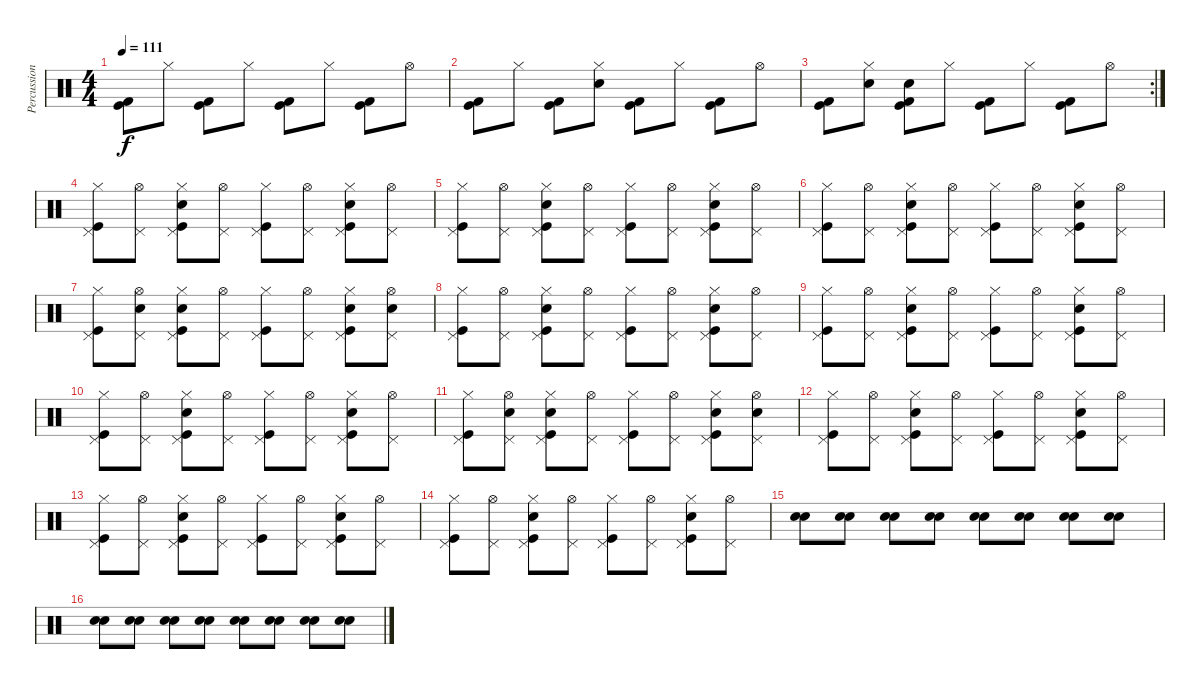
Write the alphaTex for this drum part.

\track ("Percussion" "Percussion") {instrument percussion}
\staff {score}
\articulation defaults
\ts (4 4)
\tempo 111
\clef neutral
\ks c
("Kick (hit)" "Kick (hit) 2").8{dy f} "Hi-Hat (closed)".8 ("Kick (hit)" "Kick (hit) 2").8 "Hi-Hat (closed)".8 ("Kick (hit)" "Kick (hit) 2").8 "Hi-Hat (closed)".8 ("Kick (hit)" "Kick (hit) 2").8 "Hi-Hat (open)".8 |
("Kick (hit)" "Kick (hit) 2").8 "Hi-Hat (closed)".8 ("Kick (hit)" "Kick (hit) 2").8 ("Hi-Hat (closed)" "Snare (hit) 2").8 ("Kick (hit)" "Kick (hit) 2").8 "Hi-Hat (closed)".8 ("Kick (hit)" "Kick (hit) 2").8 "Hi-Hat (open)".8 |
\rc 2
("Kick (hit)" "Kick (hit) 2").8 ("Hi-Hat (closed)" "Snare (hit) 2").8 ("Kick (hit)" "Kick (hit) 2" "Snare (hit) 2").8 "Hi-Hat (closed)".8 ("Kick (hit)" "Kick (hit) 2").8 "Hi-Hat (closed)".8 ("Kick (hit)" "Kick (hit) 2").8 "Hi-Hat (open)".8 |
("Kick (hit)" "Hi-Hat (closed)" "Pedal Hi-Hat (hit)").8 ("Hi-Hat (open)" "Pedal Hi-Hat (hit)").8 ("Kick (hit)" "Snare (hit) 2" "Hi-Hat (closed)" "Pedal Hi-Hat (hit)").8 ("Hi-Hat (open)" "Pedal Hi-Hat (hit)").8 ("Kick (hit)" "Hi-Hat (closed)" "Pedal Hi-Hat (hit)").8 ("Hi-Hat (open)" "Pedal Hi-Hat (hit)").8 ("Kick (hit)" "Snare (hit) 2" "Hi-Hat (closed)" "Pedal Hi-Hat (hit)").8 ("Hi-Hat (open)" "Pedal Hi-Hat (hit)").8 |
("Kick (hit)" "Hi-Hat (closed)" "Pedal Hi-Hat (hit)").8 ("Hi-Hat (open)" "Pedal Hi-Hat (hit)").8 ("Kick (hit)" "Snare (hit) 2" "Hi-Hat (closed)" "Pedal Hi-Hat (hit)").8 ("Hi-Hat (open)" "Pedal Hi-Hat (hit)").8 ("Kick (hit)" "Hi-Hat (closed)" "Pedal Hi-Hat (hit)").8 ("Hi-Hat (open)" "Pedal Hi-Hat (hit)").8 ("Kick (hit)" "Snare (hit) 2" "Hi-Hat (closed)" "Pedal Hi-Hat (hit)").8 ("Hi-Hat (open)" "Pedal Hi-Hat (hit)").8 |
("Kick (hit)" "Hi-Hat (closed)" "Pedal Hi-Hat (hit)").8 ("Hi-Hat (open)" "Pedal Hi-Hat (hit)").8 ("Kick (hit)" "Snare (hit) 2" "Hi-Hat (closed)" "Pedal Hi-Hat (hit)").8 ("Hi-Hat (open)" "Pedal Hi-Hat (hit)").8 ("Kick (hit)" "Hi-Hat (closed)" "Pedal Hi-Hat (hit)").8 ("Hi-Hat (open)" "Pedal Hi-Hat (hit)").8 ("Kick (hit)" "Snare (hit) 2" "Hi-Hat (closed)" "Pedal Hi-Hat (hit)").8 ("Hi-Hat (open)" "Pedal Hi-Hat (hit)").8 |
("Kick (hit)" "Hi-Hat (closed)" "Pedal Hi-Hat (hit)").8 ("Snare (hit) 2" "Hi-Hat (open)" "Pedal Hi-Hat (hit)").8 ("Kick (hit)" "Snare (hit) 2" "Hi-Hat (closed)" "Pedal Hi-Hat (hit)").8 ("Hi-Hat (open)" "Pedal Hi-Hat (hit)").8 ("Kick (hit)" "Hi-Hat (closed)" "Pedal Hi-Hat (hit)").8 ("Hi-Hat (open)" "Pedal Hi-Hat (hit)").8 ("Kick (hit)" "Snare (hit) 2" "Hi-Hat (closed)" "Pedal Hi-Hat (hit)").8 ("Snare (hit) 2" "Hi-Hat (open)" "Pedal Hi-Hat (hit)").8 |
("Kick (hit)" "Hi-Hat (closed)" "Pedal Hi-Hat (hit)").8 ("Hi-Hat (open)" "Pedal Hi-Hat (hit)").8 ("Kick (hit)" "Snare (hit) 2" "Hi-Hat (closed)" "Pedal Hi-Hat (hit)").8 ("Hi-Hat (open)" "Pedal Hi-Hat (hit)").8 ("Kick (hit)" "Hi-Hat (closed)" "Pedal Hi-Hat (hit)").8 ("Hi-Hat (open)" "Pedal Hi-Hat (hit)").8 ("Kick (hit)" "Snare (hit) 2" "Hi-Hat (closed)" "Pedal Hi-Hat (hit)").8 ("Hi-Hat (open)" "Pedal Hi-Hat (hit)").8 |
("Kick (hit)" "Hi-Hat (closed)" "Pedal Hi-Hat (hit)").8 ("Hi-Hat (open)" "Pedal Hi-Hat (hit)").8 ("Kick (hit)" "Snare (hit) 2" "Hi-Hat (closed)" "Pedal Hi-Hat (hit)").8 ("Hi-Hat (open)" "Pedal Hi-Hat (hit)").8 ("Kick (hit)" "Hi-Hat (closed)" "Pedal Hi-Hat (hit)").8 ("Hi-Hat (open)" "Pedal Hi-Hat (hit)").8 ("Kick (hit)" "Snare (hit) 2" "Hi-Hat (closed)" "Pedal Hi-Hat (hit)").8 ("Hi-Hat (open)" "Pedal Hi-Hat (hit)").8 |
("Kick (hit)" "Hi-Hat (closed)" "Pedal Hi-Hat (hit)").8 ("Hi-Hat (open)" "Pedal Hi-Hat (hit)").8 ("Kick (hit)" "Snare (hit) 2" "Hi-Hat (closed)" "Pedal Hi-Hat (hit)").8 ("Hi-Hat (open)" "Pedal Hi-Hat (hit)").8 ("Kick (hit)" "Hi-Hat (closed)" "Pedal Hi-Hat (hit)").8 ("Hi-Hat (open)" "Pedal Hi-Hat (hit)").8 ("Kick (hit)" "Snare (hit) 2" "Hi-Hat (closed)" "Pedal Hi-Hat (hit)").8 ("Hi-Hat (open)" "Pedal Hi-Hat (hit)").8 |
("Kick (hit)" "Hi-Hat (closed)" "Pedal Hi-Hat (hit)").8 ("Snare (hit) 2" "Hi-Hat (open)" "Pedal Hi-Hat (hit)").8 ("Kick (hit)" "Snare (hit) 2" "Hi-Hat (closed)" "Pedal Hi-Hat (hit)").8 ("Hi-Hat (open)" "Pedal Hi-Hat (hit)").8 ("Kick (hit)" "Hi-Hat (closed)" "Pedal Hi-Hat (hit)").8 ("Hi-Hat (open)" "Pedal Hi-Hat (hit)").8 ("Kick (hit)" "Snare (hit) 2" "Hi-Hat (closed)" "Pedal Hi-Hat (hit)").8 ("Snare (hit) 2" "Hi-Hat (open)" "Pedal Hi-Hat (hit)").8 |
("Kick (hit)" "Hi-Hat (closed)" "Pedal Hi-Hat (hit)").8 ("Hi-Hat (open)" "Pedal Hi-Hat (hit)").8 ("Kick (hit)" "Snare (hit) 2" "Hi-Hat (closed)" "Pedal Hi-Hat (hit)").8 ("Hi-Hat (open)" "Pedal Hi-Hat (hit)").8 ("Kick (hit)" "Hi-Hat (closed)" "Pedal Hi-Hat (hit)").8 ("Hi-Hat (open)" "Pedal Hi-Hat (hit)").8 ("Kick (hit)" "Snare (hit) 2" "Hi-Hat (closed)" "Pedal Hi-Hat (hit)").8 ("Hi-Hat (open)" "Pedal Hi-Hat (hit)").8 |
("Kick (hit)" "Hi-Hat (closed)" "Pedal Hi-Hat (hit)").8 ("Hi-Hat (open)" "Pedal Hi-Hat (hit)").8 ("Kick (hit)" "Snare (hit) 2" "Hi-Hat (closed)" "Pedal Hi-Hat (hit)").8 ("Hi-Hat (open)" "Pedal Hi-Hat (hit)").8 ("Kick (hit)" "Hi-Hat (closed)" "Pedal Hi-Hat (hit)").8 ("Hi-Hat (open)" "Pedal Hi-Hat (hit)").8 ("Kick (hit)" "Snare (hit) 2" "Hi-Hat (closed)" "Pedal Hi-Hat (hit)").8 ("Hi-Hat (open)" "Pedal Hi-Hat (hit)").8 |
("Kick (hit)" "Hi-Hat (closed)" "Pedal Hi-Hat (hit)").8 ("Hi-Hat (open)" "Pedal Hi-Hat (hit)").8 ("Kick (hit)" "Snare (hit) 2" "Hi-Hat (closed)" "Pedal Hi-Hat (hit)").8 ("Hi-Hat (open)" "Pedal Hi-Hat (hit)").8 ("Kick (hit)" "Hi-Hat (closed)" "Pedal Hi-Hat (hit)").8 ("Hi-Hat (open)" "Pedal Hi-Hat (hit)").8 ("Kick (hit)" "Snare (hit) 2" "Hi-Hat (closed)" "Pedal Hi-Hat (hit)").8 ("Hi-Hat (open)" "Pedal Hi-Hat (hit)").8 |
("Electric Snare (hit)" "Snare (hit) 2").8{volume 7} ("Electric Snare (hit)" "Snare (hit) 2").8 ("Electric Snare (hit)" "Snare (hit) 2").8 ("Electric Snare (hit)" "Snare (hit) 2").8 ("Electric Snare (hit)" "Snare (hit) 2").8 ("Electric Snare (hit)" "Snare (hit) 2").8 ("Electric Snare (hit)" "Snare (hit) 2").8 ("Electric Snare (hit)" "Snare (hit) 2").8 |
("Electric Snare (hit)" "Snare (hit) 2").8 ("Electric Snare (hit)" "Snare (hit) 2").8 ("Electric Snare (hit)" "Snare (hit) 2").8 ("Electric Snare (hit)" "Snare (hit) 2").8 ("Electric Snare (hit)" "Snare (hit) 2").8 ("Electric Snare (hit)" "Snare (hit) 2").8 ("Electric Snare (hit)" "Snare (hit) 2").8 ("Electric Snare (hit)" "Snare (hit) 2").8
